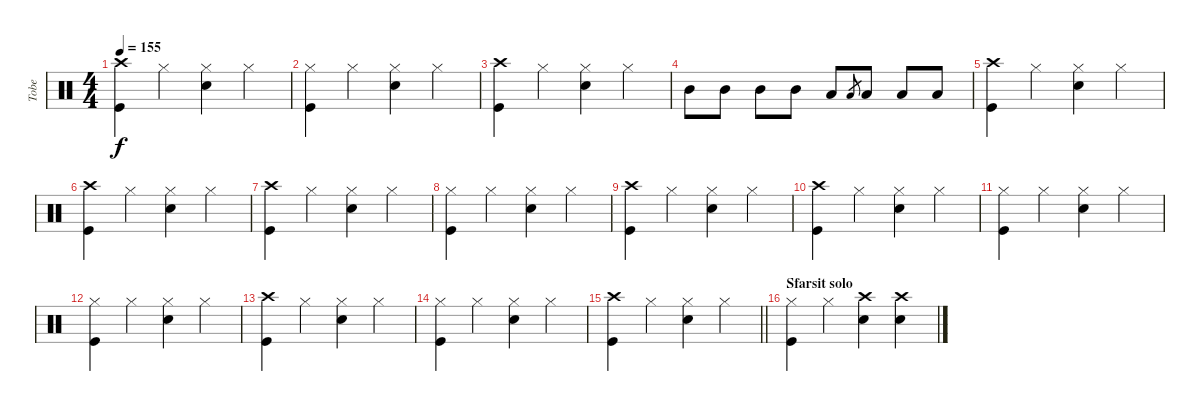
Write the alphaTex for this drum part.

\track ("Tobe" "Tobe") {instrument percussion}
\staff {score}
\articulation defaults
\ts (4 4)
\tempo 155
\clef neutral
\ks c
("Crash high (hit)" "Kick (hit)").4{dy f} "Hi-Hat (closed)".4 ("Hi-Hat (closed)" "Electric Snare (hit)").4 "Hi-Hat (closed)".4 |
("Hi-Hat (closed)" "Kick (hit)").4 "Hi-Hat (closed)".4 ("Hi-Hat (closed)" "Electric Snare (hit)").4 "Hi-Hat (closed)".4 |
("Crash high (hit)" "Kick (hit)").4 "Hi-Hat (closed)".4 ("Hi-Hat (closed)" "Electric Snare (hit)").4 "Hi-Hat (closed)".4 |
"Mid Tom (hit)".8 "Mid Tom (hit)".8 "Mid Tom (hit)".8 "Mid Tom (hit)".8 "Low Tom (hit)".8 "Low Tom (hit)".8{gr} "Low Tom (hit)".8 "Low Tom (hit)".8 "Low Tom (hit)".8 |
("Crash high (hit)" "Kick (hit)").4 "Hi-Hat (closed)".4 ("Hi-Hat (closed)" "Electric Snare (hit)").4 "Hi-Hat (closed)".4 |
("Crash high (hit)" "Kick (hit)").4 "Hi-Hat (closed)".4 ("Hi-Hat (closed)" "Electric Snare (hit)").4 "Hi-Hat (closed)".4 |
("Crash high (hit)" "Kick (hit)").4 "Hi-Hat (closed)".4 ("Hi-Hat (closed)" "Electric Snare (hit)").4 "Hi-Hat (closed)".4 |
("Hi-Hat (closed)" "Kick (hit)").4 "Hi-Hat (closed)".4 ("Hi-Hat (closed)" "Electric Snare (hit)").4 "Hi-Hat (closed)".4 |
("Crash high (hit)" "Kick (hit)").4 "Hi-Hat (closed)".4 ("Hi-Hat (closed)" "Electric Snare (hit)").4 "Hi-Hat (closed)".4 |
("Crash high (hit)" "Kick (hit)").4 "Hi-Hat (closed)".4 ("Hi-Hat (closed)" "Electric Snare (hit)").4 "Hi-Hat (closed)".4 |
("Hi-Hat (closed)" "Kick (hit)").4 "Hi-Hat (closed)".4 ("Hi-Hat (closed)" "Electric Snare (hit)").4 "Hi-Hat (closed)".4 |
("Hi-Hat (closed)" "Kick (hit)").4 "Hi-Hat (closed)".4 ("Hi-Hat (closed)" "Electric Snare (hit)").4 "Hi-Hat (closed)".4 |
("Crash high (hit)" "Kick (hit)").4 "Hi-Hat (closed)".4 ("Hi-Hat (closed)" "Electric Snare (hit)").4 "Hi-Hat (closed)".4 |
("Hi-Hat (closed)" "Kick (hit)").4 "Hi-Hat (closed)".4 ("Hi-Hat (closed)" "Electric Snare (hit)").4 "Hi-Hat (closed)".4 |
\barLineRight lightlight
("Crash high (hit)" "Kick (hit)").4 "Hi-Hat (closed)".4 ("Hi-Hat (closed)" "Electric Snare (hit)").4 "Hi-Hat (closed)".4 |
\section ("" "Sfarsit solo")
("Hi-Hat (closed)" "Kick (hit)").4 "Hi-Hat (closed)".4 ("Crash high (hit)" "Electric Snare (hit)").4 ("Crash high (hit)" "Electric Snare (hit)").4
